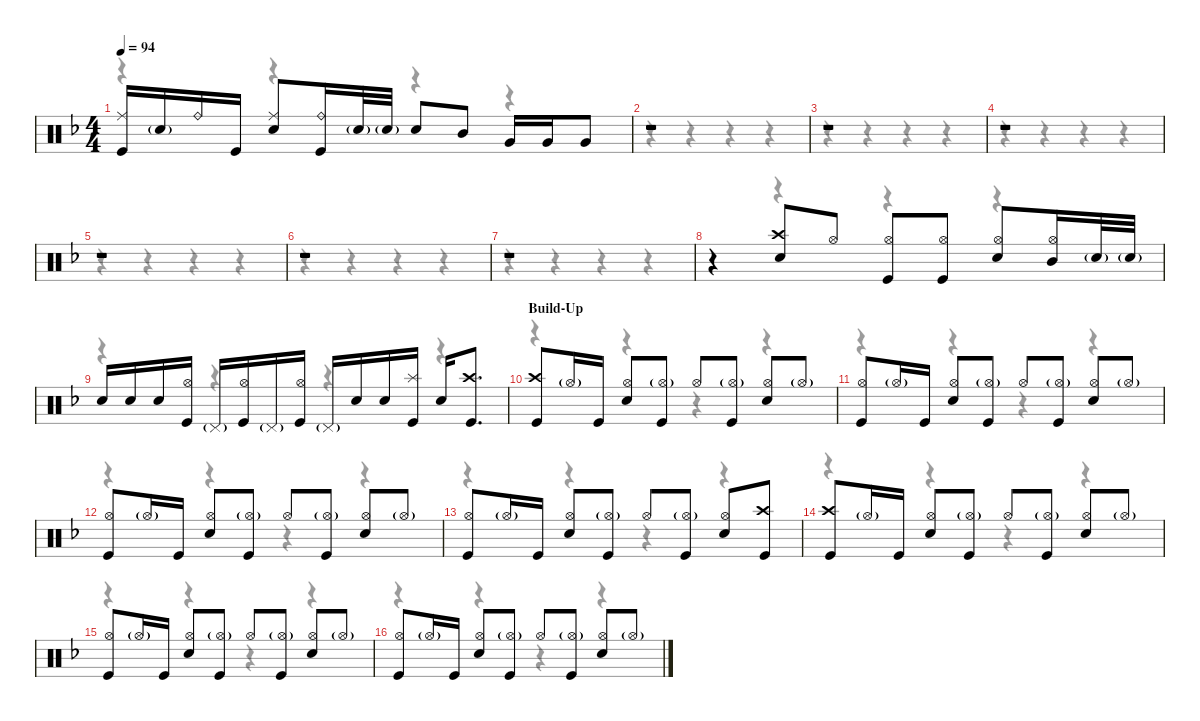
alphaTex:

\defaultSystemsLayout 4
\hideDynamics
\bracketExtendMode nobrackets
\singleTrackTrackNamePolicy hidden
\multiTrackTrackNamePolicy hidden
\otherSystemsTrackNameOrientation horizontal
\track ("M. Lopez" "drm.") {instrument percussion}
\staff {score}
\articulation defaults
\voice
\ts (4 4)
\tempo 94
\clef neutral
\ks dminor
("Ride (middle)"{acc forcenatural} "Kick (hit)"{acc forcenatural}).16{dy f beam Up} "Snare (hit) 2"{g acc forcenatural}.16{dy ff beam Up} "Ride (bell)"{acc forcenatural}.16{dy f beam Up} "Kick (hit)"{acc forcenatural}.16{beam Up} ("Ride (middle)"{acc forcenatural} "Snare (hit) 2"{acc forcenatural}).8{beam Up} ("Ride (bell)"{acc forcenatural} "Kick (hit)"{acc forcenatural}).16{beam Up} "Snare (hit) 2"{g acc forcenatural}.32{dy mf beam Up} "Snare (hit) 2"{g acc forcenatural}.32{beam Up} "Snare (hit) 2"{acc forcenatural}.8{dy f beam Up} "Mid Tom (hit)"{acc forcenatural}.8{beam Up} "Very Low Tom (hit)"{acc forcenatural}.16{beam Up} "Very Low Tom (hit)"{acc forcenatural}.16{beam Up} "Very Low Tom (hit)"{acc forcenatural}.8{beam Up} |
r.1{beam Up} |
r.1{beam Up} |
r.1{beam Up} |
r.1{beam Up} |
r.1{beam Up} |
r.1{beam Up} |
r.4{beam Up} ("Crash high (hit)"{acc forcenatural} "Snare (hit) 2"{acc forcenatural}).8{beam Up} "Hi-Hat (open)"{acc forcenatural}.8{beam Up} ("Hi-Hat (open)"{acc forcenatural} "Kick (hit)"{acc forcenatural}).8{beam Up} ("Hi-Hat (open)"{acc forcenatural} "Kick (hit)"{acc forcenatural}).8{beam Up} ("Hi-Hat (open)"{acc forcenatural} "Snare (hit) 2"{acc forcenatural}).8{beam Up} ("Hi-Hat (open)"{acc forcenatural} "Mid Tom (hit)"{acc forcenatural}).16{beam Up} "Snare (hit) 2"{g acc forcenatural}.32{beam Up} "Snare (hit) 2"{g acc forcenatural}.32{beam Up} |
"Snare (hit) 2"{acc forcenatural}.16{beam Up} "Snare (hit) 2"{acc forcenatural}.16{beam Up} "Snare (hit) 2"{acc forcenatural}.16{beam Up} ("Hi-Hat (open)"{acc forcenatural} "Kick (hit)"{acc forcenatural}).16{beam Up} "Pedal Hi-Hat (hit)"{g acc forcenatural}.16{dy mf beam Up} ("Hi-Hat (open)"{acc forcenatural} "Kick (hit)"{acc forcenatural}).16{dy f beam Up} "Pedal Hi-Hat (hit)"{g acc forcenatural}.16{dy mf beam Up} ("Hi-Hat (open)"{acc forcenatural} "Kick (hit)"{acc forcenatural}).16{dy f beam Up} "Pedal Hi-Hat (hit)"{g acc forcenatural}.16{dy mf beam Up} "Snare (hit) 2"{acc forcenatural}.16{dy f beam Up} "Snare (hit) 2"{acc forcenatural}.16{beam Up} ("Splash (hit)"{acc forcenatural} "Kick (hit)"{acc forcenatural}).16{beam Up} "Snare (hit) 2"{acc forcenatural}.16{beam Up} ("Crash high (hit)"{acc forcenatural} "Kick (hit)"{acc forcenatural}).8{d beam Up} |
\section ("" "Build-Up")
("Crash high (hit)"{acc forcenatural} "Kick (hit)"{acc forcenatural}).8{beam Up} "Hi-Hat (open)"{g acc forcenatural}.16{dy ff beam Up} "Kick (hit)"{acc forcenatural}.16{dy f beam Up} ("Hi-Hat (open)"{acc forcenatural} "Snare (hit) 2"{acc forcenatural}).8{beam Up} ("Hi-Hat (open)"{g acc forcenatural} "Kick (hit)"{acc forcenatural}).8{beam Up} "Hi-Hat (open)"{acc forcenatural}.8{beam Up} ("Hi-Hat (open)"{g acc forcenatural} "Kick (hit)"{acc forcenatural}).8{beam Up} ("Hi-Hat (open)"{acc forcenatural} "Snare (hit) 2"{acc forcenatural}).8{beam Up} "Hi-Hat (open)"{g acc forcenatural}.8{dy ff beam Up} |
("Hi-Hat (open)"{acc forcenatural} "Kick (hit)"{acc forcenatural}).8{dy f beam Up} "Hi-Hat (open)"{g acc forcenatural}.16{dy ff beam Up} "Kick (hit)"{acc forcenatural}.16{dy f beam Up} ("Hi-Hat (open)"{acc forcenatural} "Snare (hit) 2"{acc forcenatural}).8{beam Up} ("Hi-Hat (open)"{g acc forcenatural} "Kick (hit)"{acc forcenatural}).8{beam Up} "Hi-Hat (open)"{acc forcenatural}.8{beam Up} ("Hi-Hat (open)"{g acc forcenatural} "Kick (hit)"{acc forcenatural}).8{beam Up} ("Hi-Hat (open)"{acc forcenatural} "Snare (hit) 2"{acc forcenatural}).8{beam Up} "Hi-Hat (open)"{g acc forcenatural}.8{dy ff beam Up} |
("Hi-Hat (open)"{acc forcenatural} "Kick (hit)"{acc forcenatural}).8{dy f beam Up} "Hi-Hat (open)"{g acc forcenatural}.16{dy ff beam Up} "Kick (hit)"{acc forcenatural}.16{dy f beam Up} ("Hi-Hat (open)"{acc forcenatural} "Snare (hit) 2"{acc forcenatural}).8{beam Up} ("Hi-Hat (open)"{g acc forcenatural} "Kick (hit)"{acc forcenatural}).8{beam Up} "Hi-Hat (open)"{acc forcenatural}.8{beam Up} ("Hi-Hat (open)"{g acc forcenatural} "Kick (hit)"{acc forcenatural}).8{beam Up} ("Hi-Hat (open)"{acc forcenatural} "Snare (hit) 2"{acc forcenatural}).8{beam Up} "Hi-Hat (open)"{g acc forcenatural}.8{dy ff beam Up} |
("Hi-Hat (open)"{acc forcenatural} "Kick (hit)"{acc forcenatural}).8{dy f beam Up} "Hi-Hat (open)"{g acc forcenatural}.16{dy ff beam Up} "Kick (hit)"{acc forcenatural}.16{dy f beam Up} ("Hi-Hat (open)"{acc forcenatural} "Snare (hit) 2"{acc forcenatural}).8{beam Up} ("Hi-Hat (open)"{g acc forcenatural} "Kick (hit)"{acc forcenatural}).8{beam Up} "Hi-Hat (open)"{acc forcenatural}.8{beam Up} ("Hi-Hat (open)"{g acc forcenatural} "Kick (hit)"{acc forcenatural}).8{beam Up} ("Hi-Hat (open)"{acc forcenatural} "Snare (hit) 2"{acc forcenatural}).8{beam Up} ("Crash high (hit)"{acc forcenatural} "Kick (hit)"{acc forcenatural}).8{beam Up} |
("Crash high (hit)"{acc forcenatural} "Kick (hit)"{acc forcenatural}).8{beam Up} "Hi-Hat (open)"{g acc forcenatural}.16{dy ff beam Up} "Kick (hit)"{acc forcenatural}.16{dy f beam Up} ("Hi-Hat (open)"{acc forcenatural} "Snare (hit) 2"{acc forcenatural}).8{beam Up} ("Hi-Hat (open)"{g acc forcenatural} "Kick (hit)"{acc forcenatural}).8{beam Up} "Hi-Hat (open)"{acc forcenatural}.8{beam Up} ("Hi-Hat (open)"{g acc forcenatural} "Kick (hit)"{acc forcenatural}).8{beam Up} ("Hi-Hat (open)"{acc forcenatural} "Snare (hit) 2"{acc forcenatural}).8{beam Up} "Hi-Hat (open)"{g acc forcenatural}.8{dy ff beam Up} |
("Hi-Hat (open)"{acc forcenatural} "Kick (hit)"{acc forcenatural}).8{dy f beam Up} "Hi-Hat (open)"{g acc forcenatural}.16{dy ff beam Up} "Kick (hit)"{acc forcenatural}.16{dy f beam Up} ("Hi-Hat (open)"{acc forcenatural} "Snare (hit) 2"{acc forcenatural}).8{beam Up} ("Hi-Hat (open)"{g acc forcenatural} "Kick (hit)"{acc forcenatural}).8{beam Up} "Hi-Hat (open)"{acc forcenatural}.8{beam Up} ("Hi-Hat (open)"{g acc forcenatural} "Kick (hit)"{acc forcenatural}).8{beam Up} ("Hi-Hat (open)"{acc forcenatural} "Snare (hit) 2"{acc forcenatural}).8{beam Up} "Hi-Hat (open)"{g acc forcenatural}.8{dy ff beam Up} |
("Hi-Hat (open)"{acc forcenatural} "Kick (hit)"{acc forcenatural}).8{dy f beam Up} "Hi-Hat (open)"{g acc forcenatural}.16{dy ff beam Up} "Kick (hit)"{acc forcenatural}.16{dy f beam Up} ("Hi-Hat (open)"{acc forcenatural} "Snare (hit) 2"{acc forcenatural}).8{beam Up} ("Hi-Hat (open)"{g acc forcenatural} "Kick (hit)"{acc forcenatural}).8{beam Up} "Hi-Hat (open)"{acc forcenatural}.8{beam Up} ("Hi-Hat (open)"{g acc forcenatural} "Kick (hit)"{acc forcenatural}).8{beam Up} ("Hi-Hat (open)"{acc forcenatural} "Snare (hit) 2"{acc forcenatural}).8{beam Up} "Hi-Hat (open)"{g acc forcenatural}.8{dy ff beam Up}
\voice
\clef neutral
\ottava regular
\simile none
\ks dminor
r.4{dy mf beam Down} r.4{beam Down} r.4{beam Down} r.4{beam Down} |
r.4{beam Down} r.4{beam Down} r.4{beam Down} r.4{beam Down} |
r.4{beam Down} r.4{beam Down} r.4{beam Down} r.4{beam Down} |
r.4{beam Down} r.4{beam Down} r.4{beam Down} r.4{beam Down} |
r.4{beam Down} r.4{beam Down} r.4{beam Down} r.4{beam Down} |
r.4{beam Down} r.4{beam Down} r.4{beam Down} r.4{beam Down} |
r.4{beam Down} r.4{beam Down} r.4{beam Down} r.4{beam Down} |
r.4{beam Down} r.4{beam Down} r.4{beam Down} r.4{beam Down} |
r.4{beam Down} r.4{beam Down} r.4{beam Down} r.4{beam Down} |
r.4{beam Down} r.4{beam Down} r.4{beam Down} r.4{beam Down} |
r.4{beam Down} r.4{beam Down} r.4{beam Down} r.4{beam Down} |
r.4{beam Down} r.4{beam Down} r.4{beam Down} r.4{beam Down} |
r.4{beam Down} r.4{beam Down} r.4{beam Down} r.4{beam Down} |
r.4{beam Down} r.4{beam Down} r.4{beam Down} r.4{beam Down} |
r.4{beam Down} r.4{beam Down} r.4{beam Down} r.4{beam Down} |
r.4{beam Down} r.4{beam Down} r.4{beam Down} r.4{beam Down}
